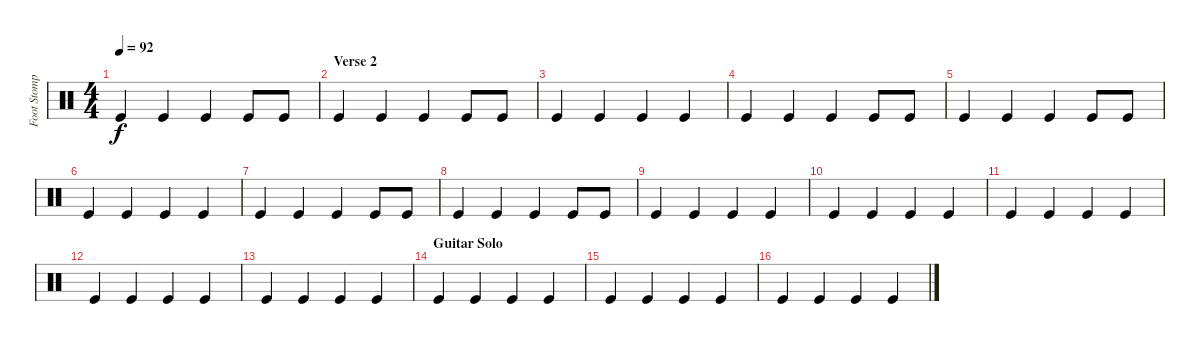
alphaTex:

\track ("Foot Stomp" "Foot Stomp") {instrument percussion}
\staff {score}
\articulation defaults
\ts (4 4)
\tempo 92
\clef neutral
\ks c "Kick (hit)".4{dy f} "Kick (hit)".4 "Kick (hit)".4 "Kick (hit)".8 "Kick (hit)".8
|
\section ("" "Verse 2")
"Kick (hit)".4 "Kick (hit)".4 "Kick (hit)".4 "Kick (hit)".8 "Kick (hit)".8 |
"Kick (hit)".4 "Kick (hit)".4 "Kick (hit)".4 "Kick (hit)".4 |
"Kick (hit)".4 "Kick (hit)".4 "Kick (hit)".4 "Kick (hit)".8 "Kick (hit)".8 |
"Kick (hit)".4 "Kick (hit)".4 "Kick (hit)".4 "Kick (hit)".8 "Kick (hit)".8 |
"Kick (hit)".4 "Kick (hit)".4 "Kick (hit)".4 "Kick (hit)".4 |
"Kick (hit)".4 "Kick (hit)".4 "Kick (hit)".4 "Kick (hit)".8 "Kick (hit)".8 |
"Kick (hit)".4 "Kick (hit)".4 "Kick (hit)".4 "Kick (hit)".8 "Kick (hit)".8 |
"Kick (hit)".4 "Kick (hit)".4 "Kick (hit)".4 "Kick (hit)".4 |
"Kick (hit)".4 "Kick (hit)".4 "Kick (hit)".4 "Kick (hit)".4 |
"Kick (hit)".4 "Kick (hit)".4 "Kick (hit)".4 "Kick (hit)".4 |
"Kick (hit)".4 "Kick (hit)".4 "Kick (hit)".4 "Kick (hit)".4 |
"Kick (hit)".4 "Kick (hit)".4 "Kick (hit)".4 "Kick (hit)".4 |
\section ("" "Guitar Solo")
"Kick (hit)".4 "Kick (hit)".4 "Kick (hit)".4 "Kick (hit)".4 |
"Kick (hit)".4 "Kick (hit)".4 "Kick (hit)".4 "Kick (hit)".4 |
"Kick (hit)".4 "Kick (hit)".4 "Kick (hit)".4 "Kick (hit)".4
